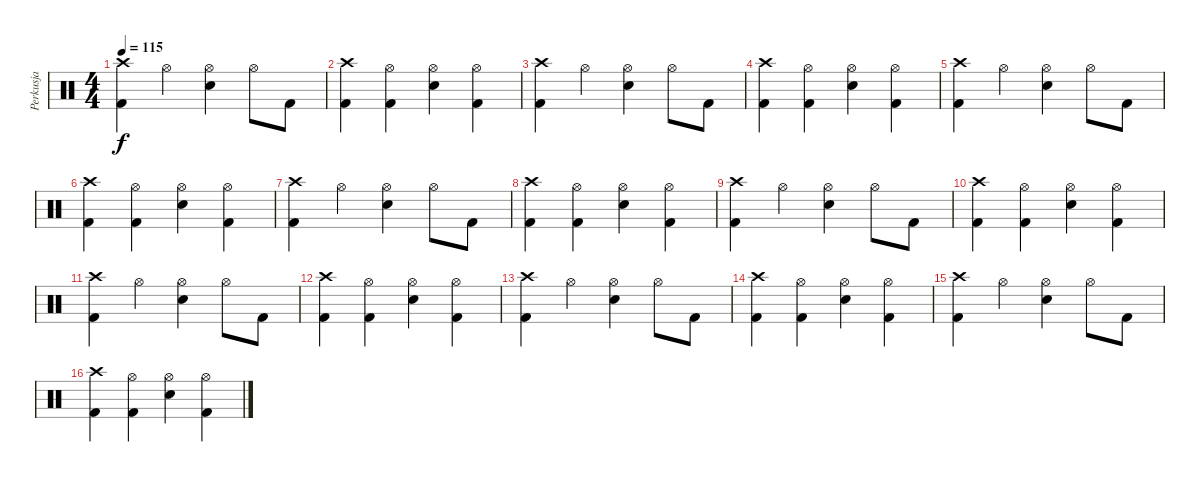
\track ("Perkusja" "Perkusja") {instrument percussion}
\staff {score}
\articulation defaults
\ts (4 4)
\tempo 115
\clef neutral
\ks c
("Crash high (hit)" "Kick (hit) 2").4{dy f} "Hi-Hat (open)".4 ("Hi-Hat (open)" "Electric Snare (hit)").4 "Hi-Hat (open)".8 "Kick (hit) 2".8 |
("Crash high (hit)" "Kick (hit) 2").4 ("Hi-Hat (open)" "Kick (hit) 2").4 ("Hi-Hat (open)" "Electric Snare (hit)").4 ("Hi-Hat (open)" "Kick (hit) 2").4 |
("Crash high (hit)" "Kick (hit) 2").4 "Hi-Hat (open)".4 ("Hi-Hat (open)" "Electric Snare (hit)").4 "Hi-Hat (open)".8 "Kick (hit) 2".8 |
("Crash high (hit)" "Kick (hit) 2").4 ("Hi-Hat (open)" "Kick (hit) 2").4 ("Hi-Hat (open)" "Electric Snare (hit)").4 ("Hi-Hat (open)" "Kick (hit) 2").4 |
("Crash high (hit)" "Kick (hit) 2").4 "Hi-Hat (open)".4 ("Hi-Hat (open)" "Electric Snare (hit)").4 "Hi-Hat (open)".8 "Kick (hit) 2".8 |
("Crash high (hit)" "Kick (hit) 2").4 ("Hi-Hat (open)" "Kick (hit) 2").4 ("Hi-Hat (open)" "Electric Snare (hit)").4 ("Hi-Hat (open)" "Kick (hit) 2").4 |
("Crash high (hit)" "Kick (hit) 2").4 "Hi-Hat (open)".4 ("Hi-Hat (open)" "Electric Snare (hit)").4 "Hi-Hat (open)".8 "Kick (hit) 2".8 |
("Crash high (hit)" "Kick (hit) 2").4 ("Hi-Hat (open)" "Kick (hit) 2").4 ("Hi-Hat (open)" "Electric Snare (hit)").4 ("Hi-Hat (open)" "Kick (hit) 2").4 |
("Crash high (hit)" "Kick (hit) 2").4 "Hi-Hat (open)".4 ("Hi-Hat (open)" "Electric Snare (hit)").4 "Hi-Hat (open)".8 "Kick (hit) 2".8 |
("Crash high (hit)" "Kick (hit) 2").4 ("Hi-Hat (open)" "Kick (hit) 2").4 ("Hi-Hat (open)" "Electric Snare (hit)").4 ("Hi-Hat (open)" "Kick (hit) 2").4 |
("Crash high (hit)" "Kick (hit) 2").4 "Hi-Hat (open)".4 ("Hi-Hat (open)" "Electric Snare (hit)").4 "Hi-Hat (open)".8 "Kick (hit) 2".8 |
("Crash high (hit)" "Kick (hit) 2").4 ("Hi-Hat (open)" "Kick (hit) 2").4 ("Hi-Hat (open)" "Electric Snare (hit)").4 ("Hi-Hat (open)" "Kick (hit) 2").4 |
("Crash high (hit)" "Kick (hit) 2").4 "Hi-Hat (open)".4 ("Hi-Hat (open)" "Electric Snare (hit)").4 "Hi-Hat (open)".8 "Kick (hit) 2".8 |
("Crash high (hit)" "Kick (hit) 2").4 ("Hi-Hat (open)" "Kick (hit) 2").4 ("Hi-Hat (open)" "Electric Snare (hit)").4 ("Hi-Hat (open)" "Kick (hit) 2").4 |
("Crash high (hit)" "Kick (hit) 2").4 "Hi-Hat (open)".4 ("Hi-Hat (open)" "Electric Snare (hit)").4 "Hi-Hat (open)".8 "Kick (hit) 2".8 |
("Crash high (hit)" "Kick (hit) 2").4 ("Hi-Hat (open)" "Kick (hit) 2").4 ("Hi-Hat (open)" "Electric Snare (hit)").4 ("Hi-Hat (open)" "Kick (hit) 2").4
